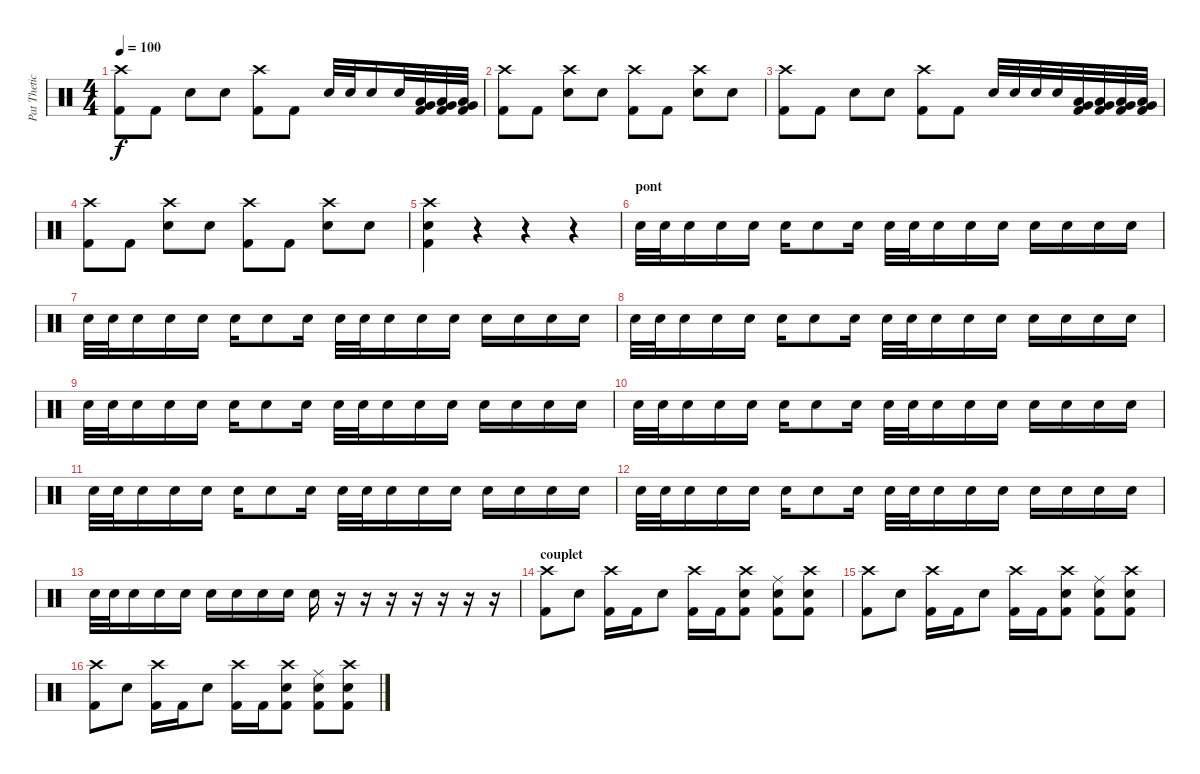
\track ("Pat Thetic" "Pat Thetic") {instrument percussion}
\staff {score}
\articulation defaults
\ts (4 4)
\tempo 100
\clef neutral
\ks c
("Crash high (hit)" "Kick (hit) 2").8{dy f} "Kick (hit) 2".8 "Snare (hit) 2".8 "Snare (hit) 2".8 ("Crash high (hit)" "Kick (hit) 2").8 "Kick (hit) 2".8 "Snare (hit) 2".32 "Snare (hit) 2".32 "Snare (hit) 2".16 "Snare (hit) 2".32 ("Kick (hit) 2" "Low Floor Tom (hit)" "Very Low Tom (hit)").32 ("Kick (hit) 2" "Low Floor Tom (hit)" "Very Low Tom (hit)").32 ("Kick (hit) 2" "Low Floor Tom (hit)" "Very Low Tom (hit)").32 |
("Crash high (hit)" "Kick (hit) 2").8 "Kick (hit) 2".8 ("Crash high (hit)" "Snare (hit) 2").8 "Snare (hit) 2".8 ("Crash high (hit)" "Kick (hit) 2").8 "Kick (hit) 2".8 ("Crash high (hit)" "Snare (hit) 2").8 "Snare (hit) 2".8 |
("Crash high (hit)" "Kick (hit) 2").8 "Kick (hit) 2".8 "Snare (hit) 2".8 "Snare (hit) 2".8 ("Crash high (hit)" "Kick (hit) 2").8 "Kick (hit) 2".8 "Snare (hit) 2".32 "Snare (hit) 2".32 "Snare (hit) 2".32 "Snare (hit) 2".32 ("Kick (hit) 2" "Low Floor Tom (hit)" "Very Low Tom (hit)").32 ("Kick (hit) 2" "Low Floor Tom (hit)" "Very Low Tom (hit)").32 ("Kick (hit) 2" "Low Floor Tom (hit)" "Very Low Tom (hit)").32 ("Kick (hit) 2" "Low Floor Tom (hit)" "Very Low Tom (hit)").32 |
("Crash high (hit)" "Kick (hit) 2").8 "Kick (hit) 2".8 ("Crash high (hit)" "Snare (hit) 2").8 "Snare (hit) 2".8 ("Crash high (hit)" "Kick (hit) 2").8 "Kick (hit) 2".8 ("Crash high (hit)" "Snare (hit) 2").8 "Snare (hit) 2".8 |
("Crash high (hit)" "Kick (hit) 2" "Snare (hit) 2").4 r.4 r.4 r.4 |
\section ("" "pont")
"Snare (hit) 2".32 "Snare (hit) 2".32 "Snare (hit) 2".16 "Snare (hit) 2".16 "Snare (hit) 2".16 "Snare (hit) 2".16 "Snare (hit) 2".8 "Snare (hit) 2".16 "Snare (hit) 2".32 "Snare (hit) 2".32 "Snare (hit) 2".16 "Snare (hit) 2".16 "Snare (hit) 2".16 "Snare (hit) 2".16 "Snare (hit) 2".16 "Snare (hit) 2".16 "Snare (hit) 2".16 |
"Snare (hit) 2".32 "Snare (hit) 2".32 "Snare (hit) 2".16 "Snare (hit) 2".16 "Snare (hit) 2".16 "Snare (hit) 2".16 "Snare (hit) 2".8 "Snare (hit) 2".16 "Snare (hit) 2".32 "Snare (hit) 2".32 "Snare (hit) 2".16 "Snare (hit) 2".16 "Snare (hit) 2".16 "Snare (hit) 2".16 "Snare (hit) 2".16 "Snare (hit) 2".16 "Snare (hit) 2".16 |
"Snare (hit) 2".32 "Snare (hit) 2".32 "Snare (hit) 2".16 "Snare (hit) 2".16 "Snare (hit) 2".16 "Snare (hit) 2".16 "Snare (hit) 2".8 "Snare (hit) 2".16 "Snare (hit) 2".32 "Snare (hit) 2".32 "Snare (hit) 2".16 "Snare (hit) 2".16 "Snare (hit) 2".16 "Snare (hit) 2".16 "Snare (hit) 2".16 "Snare (hit) 2".16 "Snare (hit) 2".16 |
"Snare (hit) 2".32 "Snare (hit) 2".32 "Snare (hit) 2".16 "Snare (hit) 2".16 "Snare (hit) 2".16 "Snare (hit) 2".16 "Snare (hit) 2".8 "Snare (hit) 2".16 "Snare (hit) 2".32 "Snare (hit) 2".32 "Snare (hit) 2".16 "Snare (hit) 2".16 "Snare (hit) 2".16 "Snare (hit) 2".16 "Snare (hit) 2".16 "Snare (hit) 2".16 "Snare (hit) 2".16 |
"Snare (hit) 2".32 "Snare (hit) 2".32 "Snare (hit) 2".16 "Snare (hit) 2".16 "Snare (hit) 2".16 "Snare (hit) 2".16 "Snare (hit) 2".8 "Snare (hit) 2".16 "Snare (hit) 2".32 "Snare (hit) 2".32 "Snare (hit) 2".16 "Snare (hit) 2".16 "Snare (hit) 2".16 "Snare (hit) 2".16 "Snare (hit) 2".16 "Snare (hit) 2".16 "Snare (hit) 2".16 |
"Snare (hit) 2".32 "Snare (hit) 2".32 "Snare (hit) 2".16 "Snare (hit) 2".16 "Snare (hit) 2".16 "Snare (hit) 2".16 "Snare (hit) 2".8 "Snare (hit) 2".16 "Snare (hit) 2".32 "Snare (hit) 2".32 "Snare (hit) 2".16 "Snare (hit) 2".16 "Snare (hit) 2".16 "Snare (hit) 2".16 "Snare (hit) 2".16 "Snare (hit) 2".16 "Snare (hit) 2".16 |
"Snare (hit) 2".32 "Snare (hit) 2".32 "Snare (hit) 2".16 "Snare (hit) 2".16 "Snare (hit) 2".16 "Snare (hit) 2".16 "Snare (hit) 2".8 "Snare (hit) 2".16 "Snare (hit) 2".32 "Snare (hit) 2".32 "Snare (hit) 2".16 "Snare (hit) 2".16 "Snare (hit) 2".16 "Snare (hit) 2".16 "Snare (hit) 2".16 "Snare (hit) 2".16 "Snare (hit) 2".16 |
"Snare (hit) 2".32 "Snare (hit) 2".32 "Snare (hit) 2".16 "Snare (hit) 2".16 "Snare (hit) 2".16 "Snare (hit) 2".16 "Snare (hit) 2".16 "Snare (hit) 2".16 "Snare (hit) 2".16 "Snare (hit) 2".16 r.16 r.16 r.16 r.16 r.16 r.16 r.16 |
\section ("" "couplet")
("Crash high (hit)" "Kick (hit) 2").8 "Snare (hit) 2".8 ("Crash high (hit)" "Kick (hit) 2").16 "Kick (hit) 2".16 "Snare (hit) 2".8 ("Crash high (hit)" "Kick (hit) 2").16 "Kick (hit) 2".16 ("Kick (hit) 2" "Crash high (hit)" "Snare (hit) 2").8 ("Kick (hit) 2" "Ride (middle)" "Snare (hit) 2").8 ("Kick (hit) 2" "Crash high (hit)" "Snare (hit) 2").8 |
("Crash high (hit)" "Kick (hit) 2").8 "Snare (hit) 2".8 ("Crash high (hit)" "Kick (hit) 2").16 "Kick (hit) 2".16 "Snare (hit) 2".8 ("Crash high (hit)" "Kick (hit) 2").16 "Kick (hit) 2".16 ("Kick (hit) 2" "Crash high (hit)" "Snare (hit) 2").8 ("Kick (hit) 2" "Ride (middle)" "Snare (hit) 2").8 ("Kick (hit) 2" "Crash high (hit)" "Snare (hit) 2").8 |
("Crash high (hit)" "Kick (hit) 2").8 "Snare (hit) 2".8 ("Crash high (hit)" "Kick (hit) 2").16 "Kick (hit) 2".16 "Snare (hit) 2".8 ("Crash high (hit)" "Kick (hit) 2").16 "Kick (hit) 2".16 ("Kick (hit) 2" "Crash high (hit)" "Snare (hit) 2").8 ("Kick (hit) 2" "Ride (middle)" "Snare (hit) 2").8 ("Kick (hit) 2" "Crash high (hit)" "Snare (hit) 2").8
